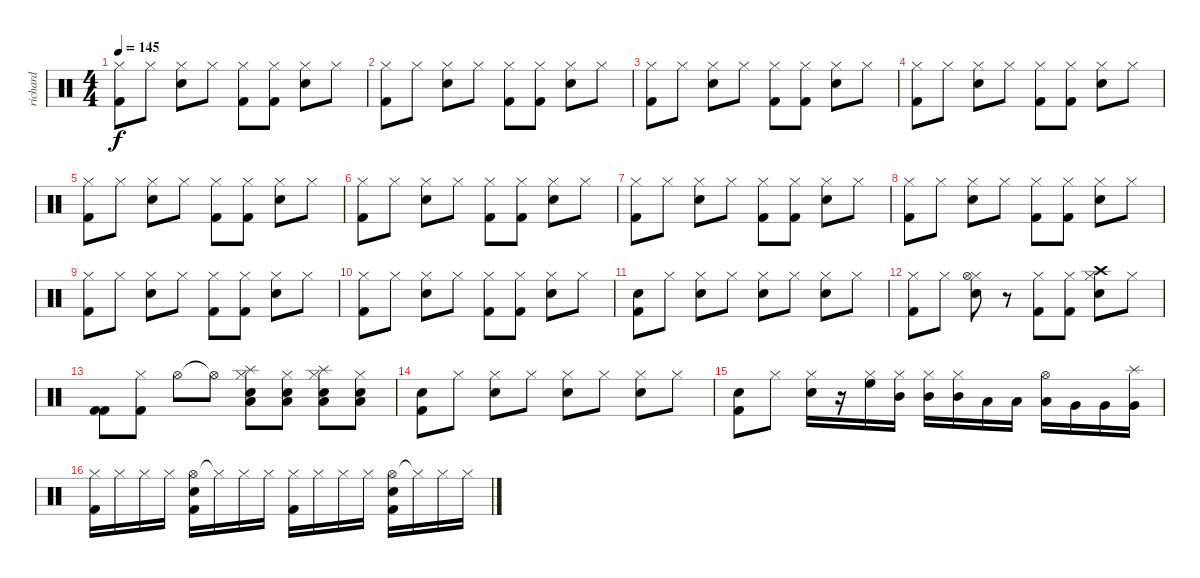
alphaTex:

\track ("richard" "richard") {instrument percussion}
\staff {score}
\articulation defaults
\ts (4 4)
\tempo 145
\clef neutral
\ks c
("Kick (hit) 2" "Hi-Hat (closed)").8{dy f} "Hi-Hat (closed)".8 ("Hi-Hat (closed)" "Snare (hit) 2").8 "Hi-Hat (closed)".8 ("Hi-Hat (closed)" "Kick (hit) 2").8 ("Hi-Hat (closed)" "Kick (hit) 2").8 ("Hi-Hat (closed)" "Snare (hit) 2").8 "Hi-Hat (closed)".8 |
("Kick (hit) 2" "Hi-Hat (closed)").8 "Hi-Hat (closed)".8 ("Hi-Hat (closed)" "Snare (hit) 2").8 "Hi-Hat (closed)".8 ("Hi-Hat (closed)" "Kick (hit) 2").8 ("Hi-Hat (closed)" "Kick (hit) 2").8 ("Hi-Hat (closed)" "Snare (hit) 2").8 "Hi-Hat (closed)".8 |
("Kick (hit) 2" "Hi-Hat (closed)").8 "Hi-Hat (closed)".8 ("Hi-Hat (closed)" "Snare (hit) 2").8 "Hi-Hat (closed)".8 ("Hi-Hat (closed)" "Kick (hit) 2").8 ("Hi-Hat (closed)" "Kick (hit) 2").8 ("Hi-Hat (closed)" "Snare (hit) 2").8 "Hi-Hat (closed)".8 |
("Kick (hit) 2" "Hi-Hat (closed)").8 "Hi-Hat (closed)".8 ("Hi-Hat (closed)" "Snare (hit) 2").8 "Hi-Hat (closed)".8 ("Hi-Hat (closed)" "Kick (hit) 2").8 ("Hi-Hat (closed)" "Kick (hit) 2").8 ("Hi-Hat (closed)" "Snare (hit) 2").8 "Hi-Hat (closed)".8 |
("Kick (hit) 2" "Hi-Hat (closed)").8 "Hi-Hat (closed)".8 ("Hi-Hat (closed)" "Snare (hit) 2").8 "Hi-Hat (closed)".8 ("Hi-Hat (closed)" "Kick (hit) 2").8 ("Hi-Hat (closed)" "Kick (hit) 2").8 ("Hi-Hat (closed)" "Snare (hit) 2").8 "Hi-Hat (closed)".8 |
("Kick (hit) 2" "Hi-Hat (closed)").8 "Hi-Hat (closed)".8 ("Hi-Hat (closed)" "Snare (hit) 2").8 "Hi-Hat (closed)".8 ("Hi-Hat (closed)" "Kick (hit) 2").8 ("Hi-Hat (closed)" "Kick (hit) 2").8 ("Hi-Hat (closed)" "Snare (hit) 2").8 "Hi-Hat (closed)".8 |
("Kick (hit) 2" "Hi-Hat (closed)").8 "Hi-Hat (closed)".8 ("Hi-Hat (closed)" "Snare (hit) 2").8 "Hi-Hat (closed)".8 ("Hi-Hat (closed)" "Kick (hit) 2").8 ("Hi-Hat (closed)" "Kick (hit) 2").8 ("Hi-Hat (closed)" "Snare (hit) 2").8 "Hi-Hat (closed)".8 |
("Kick (hit) 2" "Hi-Hat (closed)").8 "Hi-Hat (closed)".8 ("Hi-Hat (closed)" "Snare (hit) 2").8 "Hi-Hat (closed)".8 ("Hi-Hat (closed)" "Kick (hit) 2").8 ("Hi-Hat (closed)" "Kick (hit) 2").8 ("Hi-Hat (closed)" "Snare (hit) 2").8 "Hi-Hat (closed)".8 |
("Kick (hit) 2" "Hi-Hat (closed)").8 "Hi-Hat (closed)".8 ("Hi-Hat (closed)" "Snare (hit) 2").8 "Hi-Hat (closed)".8 ("Hi-Hat (closed)" "Kick (hit) 2").8 ("Hi-Hat (closed)" "Kick (hit) 2").8 ("Hi-Hat (closed)" "Snare (hit) 2").8 "Hi-Hat (closed)".8 |
("Kick (hit) 2" "Hi-Hat (closed)").8 "Hi-Hat (closed)".8 ("Hi-Hat (closed)" "Snare (hit) 2").8 "Hi-Hat (closed)".8 ("Hi-Hat (closed)" "Kick (hit) 2").8 ("Hi-Hat (closed)" "Kick (hit) 2").8 ("Hi-Hat (closed)" "Snare (hit) 2").8 "Hi-Hat (closed)".8 |
("Kick (hit) 2" "Snare (hit) 2").8 "Hi-Hat (closed)".8 ("Hi-Hat (closed)" "Snare (hit) 2").8 "Hi-Hat (closed)".8 ("Hi-Hat (closed)" "Snare (hit) 2").8 "Hi-Hat (closed)".8 ("Hi-Hat (closed)" "Snare (hit) 2").8 "Hi-Hat (closed)".8 |
("Kick (hit) 2" "Hi-Hat (closed)").8 "Hi-Hat (closed)".8 ("Hi-Hat (closed)" "Snare (hit) 2" "Hi-Hat (open)").8 r.8 ("Hi-Hat (closed)" "Kick (hit) 2").8 ("Hi-Hat (closed)" "Kick (hit) 2").8 ("Hi-Hat (closed)" "Snare (hit) 2" "Crash high (hit)").8 "Hi-Hat (closed)".8 |
("Kick (hit) 2" "Kick (hit) 2").8 ("Hi-Hat (closed)" "Kick (hit) 2").8 "Hi-Hat (open)".8 "Hi-Hat (open)"{t}.8 ("Hi-Hat (closed)" "Snare (hit) 2" "Low Floor Tom (hit)" "Splash (hit)").8 ("Hi-Hat (closed)" "Snare (hit) 2" "Low Floor Tom (hit)").8 ("Hi-Hat (closed)" "Snare (hit) 2" "Low Floor Tom (hit)" "Splash (hit)").8 ("Hi-Hat (closed)" "Snare (hit) 2" "Low Floor Tom (hit)").8 |
("Kick (hit) 2" "Snare (hit) 2").8 "Hi-Hat (closed)".8 ("Hi-Hat (closed)" "Snare (hit) 2").8 "Hi-Hat (closed)".8 ("Hi-Hat (closed)" "Snare (hit) 2").8 "Hi-Hat (closed)".8 ("Hi-Hat (closed)" "Snare (hit) 2").8 "Hi-Hat (closed)".8 |
("Kick (hit) 2" "Snare (hit) 2").8 "Hi-Hat (closed)".8 ("Hi-Hat (closed)" "Snare (hit) 2").16 r.16 ("Hi-Hat (closed)" "High Floor Tom (hit)").16 ("Hi-Hat (closed)" "Mid Tom (hit)").16 ("Hi-Hat (closed)" "Mid Tom (hit)").16 ("Hi-Hat (closed)" "Mid Tom (hit)").16 "Low Tom (hit)".16 "Low Tom (hit)".16 ("Hi-Hat (open)" "Low Tom (hit)").16 "Very Low Tom (hit)".16 "Very Low Tom (hit)".16 ("Splash (hit)" "Very Low Tom (hit)").16 |
("Hi-Hat (closed)" "Kick (hit) 2").16 "Hi-Hat (closed)".16 "Hi-Hat (closed)".16 "Hi-Hat (closed)".16 ("Hi-Hat (open)" "Kick (hit) 2" "Snare (hit) 2").16 "Hi-Hat (closed)"{t}.16 "Hi-Hat (closed)".16 "Hi-Hat (closed)".16 ("Hi-Hat (closed)" "Kick (hit) 2").16 "Hi-Hat (closed)".16 "Hi-Hat (closed)".16 "Hi-Hat (closed)".16 ("Hi-Hat (open)" "Kick (hit) 2" "Snare (hit) 2").16 "Hi-Hat (closed)"{t}.16 "Hi-Hat (closed)".16 "Hi-Hat (closed)".16
